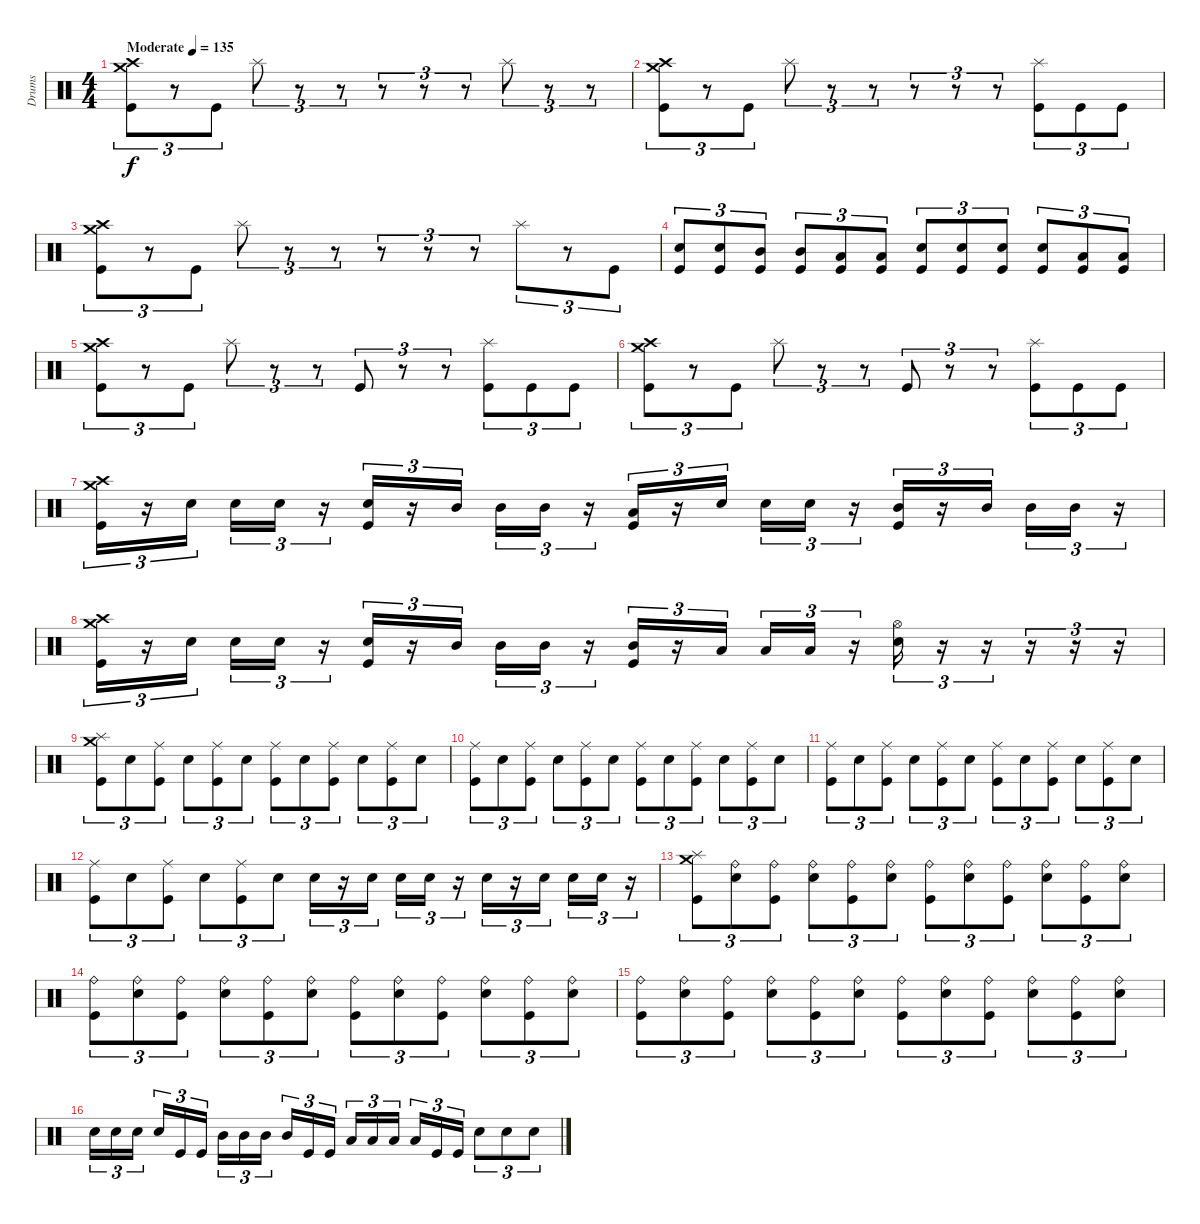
\track ("Drums" "Drums") {instrument percussion}
\staff {score}
\articulation defaults
\ts (4 4)
\tempo (135 "Moderate")
\clef neutral
\ks c
("Crash high (hit)" "Crash medium (hit)" "Kick (hit)").8{tu (3 2) dy f} r.8{tu (3 2)} "Kick (hit)".8{tu (3 2)} "Splash (hit)".8{tu (3 2)} r.8{tu (3 2)} r.8{tu (3 2)} r.8{tu (3 2)} r.8{tu (3 2)} r.8{tu (3 2)} "Splash (hit)".8{tu (3 2)} r.8{tu (3 2)} r.8{tu (3 2)} |
("Crash high (hit)" "Crash medium (hit)" "Kick (hit)").8{tu (3 2)} r.8{tu (3 2)} "Kick (hit)".8{tu (3 2)} "Splash (hit)".8{tu (3 2)} r.8{tu (3 2)} r.8{tu (3 2)} r.8{tu (3 2)} r.8{tu (3 2)} r.8{tu (3 2)} ("Splash (hit)" "Kick (hit)").8{tu (3 2)} "Kick (hit)".8{tu (3 2)} "Kick (hit)".8{tu (3 2)} |
("Crash high (hit)" "Crash medium (hit)" "Kick (hit)").8{tu (3 2)} r.8{tu (3 2)} "Kick (hit)".8{tu (3 2)} "Splash (hit)".8{tu (3 2)} r.8{tu (3 2)} r.8{tu (3 2)} r.8{tu (3 2)} r.8{tu (3 2)} r.8{tu (3 2)} "Splash (hit)".8{tu (3 2)} r.8{tu (3 2)} "Kick (hit)".8{tu (3 2)} |
("Electric Snare (hit)" "Kick (hit)").8{tu (3 2)} ("Electric Snare (hit)" "Kick (hit)").8{tu (3 2)} ("Mid Tom (hit)" "Kick (hit)").8{tu (3 2)} ("Mid Tom (hit)" "Kick (hit)").8{tu (3 2)} ("Low Tom (hit)" "Kick (hit)").8{tu (3 2)} ("Low Tom (hit)" "Kick (hit)").8{tu (3 2)} ("Electric Snare (hit)" "Kick (hit)").8{tu (3 2)} ("Electric Snare (hit)" "Kick (hit)").8{tu (3 2)} ("Electric Snare (hit)" "Kick (hit)").8{tu (3 2)} ("Electric Snare (hit)" "Kick (hit)").8{tu (3 2)} ("Low Tom (hit)" "Kick (hit)").8{tu (3 2)} ("Low Tom (hit)" "Kick (hit)").8{tu (3 2)} |
("Crash high (hit)" "Crash medium (hit)" "Kick (hit)").8{tu (3 2)} r.8{tu (3 2)} "Kick (hit)".8{tu (3 2)} "Splash (hit)".8{tu (3 2)} r.8{tu (3 2)} r.8{tu (3 2)} "Kick (hit)".8{tu (3 2)} r.8{tu (3 2)} r.8{tu (3 2)} ("Splash (hit)" "Kick (hit)").8{tu (3 2)} "Kick (hit)".8{tu (3 2)} "Kick (hit)".8{tu (3 2)} |
("Crash high (hit)" "Crash medium (hit)" "Kick (hit)").8{tu (3 2)} r.8{tu (3 2)} "Kick (hit)".8{tu (3 2)} "Splash (hit)".8{tu (3 2)} r.8{tu (3 2)} r.8{tu (3 2)} "Kick (hit)".8{tu (3 2)} r.8{tu (3 2)} r.8{tu (3 2)} ("Splash (hit)" "Kick (hit)").8{tu (3 2)} "Kick (hit)".8{tu (3 2)} "Kick (hit)".8{tu (3 2)} |
("Crash high (hit)" "Crash medium (hit)" "Kick (hit)").16{tu (3 2)} r.16{tu (3 2)} "Electric Snare (hit)".16{tu (3 2) beam splitsecondary} "Electric Snare (hit)".16{tu (3 2)} "Electric Snare (hit)".16{tu (3 2)} r.16{tu (3 2)} ("Electric Snare (hit)" "Kick (hit)").16{tu (3 2)} r.16{tu (3 2)} "Mid Tom (hit)".16{tu (3 2) beam splitsecondary} "Mid Tom (hit)".16{tu (3 2)} "Mid Tom (hit)".16{tu (3 2)} r.16{tu (3 2)} ("Low Tom (hit)" "Kick (hit)").16{tu (3 2)} r.16{tu (3 2)} "Electric Snare (hit)".16{tu (3 2) beam splitsecondary} "Electric Snare (hit)".16{tu (3 2)} "Electric Snare (hit)".16{tu (3 2)} r.16{tu (3 2)} ("Mid Tom (hit)" "Kick (hit)").16{tu (3 2)} r.16{tu (3 2)} "Mid Tom (hit)".16{tu (3 2) beam splitsecondary} "Mid Tom (hit)".16{tu (3 2)} "Mid Tom (hit)".16{tu (3 2)} r.16{tu (3 2)} |
("Crash high (hit)" "Crash medium (hit)" "Kick (hit)").16{tu (3 2)} r.16{tu (3 2)} "Electric Snare (hit)".16{tu (3 2) beam splitsecondary} "Electric Snare (hit)".16{tu (3 2)} "Electric Snare (hit)".16{tu (3 2)} r.16{tu (3 2)} ("Electric Snare (hit)" "Kick (hit)").16{tu (3 2)} r.16{tu (3 2)} "Mid Tom (hit)".16{tu (3 2) beam splitsecondary} "Mid Tom (hit)".16{tu (3 2)} "Mid Tom (hit)".16{tu (3 2)} r.16{tu (3 2)} ("Mid Tom (hit)" "Kick (hit)").16{tu (3 2)} r.16{tu (3 2)} "Low Tom (hit)".16{tu (3 2) beam splitsecondary} "Low Tom (hit)".16{tu (3 2)} "Low Tom (hit)".16{tu (3 2)} r.16{tu (3 2)} ("Hi-Hat (open)" "Electric Snare (hit)").16{tu (3 2)} r.16{tu (3 2)} r.16{tu (3 2) volume 0} r.16{tu (3 2)} r.16{tu (3 2)} r.16{tu (3 2)} |
("Splash (hit)" "Crash medium (hit)" "Kick (hit)").8{tu (3 2) volume 13} "Electric Snare (hit)".8{tu (3 2)} ("Ride (middle)" "Kick (hit)").8{tu (3 2)} "Electric Snare (hit)".8{tu (3 2)} ("Ride (middle)" "Kick (hit)").8{tu (3 2)} "Electric Snare (hit)".8{tu (3 2)} ("Ride (middle)" "Kick (hit)").8{tu (3 2) volume 13} "Electric Snare (hit)".8{tu (3 2)} ("Ride (middle)" "Kick (hit)").8{tu (3 2)} "Electric Snare (hit)".8{tu (3 2)} ("Ride (middle)" "Kick (hit)").8{tu (3 2)} "Electric Snare (hit)".8{tu (3 2)} |
("Ride (middle)" "Kick (hit)").8{tu (3 2) volume 13} "Electric Snare (hit)".8{tu (3 2)} ("Ride (middle)" "Kick (hit)").8{tu (3 2)} "Electric Snare (hit)".8{tu (3 2)} ("Ride (middle)" "Kick (hit)").8{tu (3 2)} "Electric Snare (hit)".8{tu (3 2)} ("Ride (middle)" "Kick (hit)").8{tu (3 2) volume 13} "Electric Snare (hit)".8{tu (3 2)} ("Ride (middle)" "Kick (hit)").8{tu (3 2)} "Electric Snare (hit)".8{tu (3 2)} ("Ride (middle)" "Kick (hit)").8{tu (3 2)} "Electric Snare (hit)".8{tu (3 2)} |
("Ride (middle)" "Kick (hit)").8{tu (3 2) volume 13} "Electric Snare (hit)".8{tu (3 2)} ("Ride (middle)" "Kick (hit)").8{tu (3 2)} "Electric Snare (hit)".8{tu (3 2)} ("Ride (middle)" "Kick (hit)").8{tu (3 2)} "Electric Snare (hit)".8{tu (3 2)} ("Ride (middle)" "Kick (hit)").8{tu (3 2) volume 13} "Electric Snare (hit)".8{tu (3 2)} ("Ride (middle)" "Kick (hit)").8{tu (3 2)} "Electric Snare (hit)".8{tu (3 2)} ("Ride (middle)" "Kick (hit)").8{tu (3 2)} "Electric Snare (hit)".8{tu (3 2)} |
("Ride (middle)" "Kick (hit)").8{tu (3 2) volume 13} "Electric Snare (hit)".8{tu (3 2)} ("Ride (middle)" "Kick (hit)").8{tu (3 2)} "Electric Snare (hit)".8{tu (3 2)} ("Ride (middle)" "Kick (hit)").8{tu (3 2)} "Electric Snare (hit)".8{tu (3 2)} "Electric Snare (hit)".16{tu (3 2)} r.16{tu (3 2)} "Electric Snare (hit)".16{tu (3 2) beam splitsecondary} "Electric Snare (hit)".16{tu (3 2)} "Electric Snare (hit)".16{tu (3 2)} r.16{tu (3 2)} "Electric Snare (hit)".16{tu (3 2)} r.16{tu (3 2)} "Electric Snare (hit)".16{tu (3 2) beam splitsecondary} "Electric Snare (hit)".16{tu (3 2)} "Electric Snare (hit)".16{tu (3 2)} r.16{tu (3 2)} |
("Splash (hit)" "Crash medium (hit)" "Kick (hit)").8{tu (3 2) volume 13} ("Ride (bell)" "Electric Snare (hit)").8{tu (3 2)} ("Ride (bell)" "Kick (hit)").8{tu (3 2)} ("Ride (bell)" "Electric Snare (hit)").8{tu (3 2)} ("Ride (bell)" "Kick (hit)").8{tu (3 2)} ("Ride (bell)" "Electric Snare (hit)").8{tu (3 2)} ("Ride (bell)" "Kick (hit)").8{tu (3 2) volume 13} ("Ride (bell)" "Electric Snare (hit)").8{tu (3 2)} ("Ride (bell)" "Kick (hit)").8{tu (3 2)} ("Ride (bell)" "Electric Snare (hit)").8{tu (3 2)} ("Ride (bell)" "Kick (hit)").8{tu (3 2)} ("Ride (bell)" "Electric Snare (hit)").8{tu (3 2)} |
("Ride (bell)" "Kick (hit)").8{tu (3 2) volume 13} ("Ride (bell)" "Electric Snare (hit)").8{tu (3 2)} ("Ride (bell)" "Kick (hit)").8{tu (3 2)} ("Ride (bell)" "Electric Snare (hit)").8{tu (3 2)} ("Ride (bell)" "Kick (hit)").8{tu (3 2)} ("Ride (bell)" "Electric Snare (hit)").8{tu (3 2)} ("Ride (bell)" "Kick (hit)").8{tu (3 2) volume 13} ("Ride (bell)" "Electric Snare (hit)").8{tu (3 2)} ("Ride (bell)" "Kick (hit)").8{tu (3 2)} ("Ride (bell)" "Electric Snare (hit)").8{tu (3 2)} ("Ride (bell)" "Kick (hit)").8{tu (3 2)} ("Ride (bell)" "Electric Snare (hit)").8{tu (3 2)} |
("Ride (bell)" "Kick (hit)").8{tu (3 2) volume 13} ("Ride (bell)" "Electric Snare (hit)").8{tu (3 2)} ("Ride (bell)" "Kick (hit)").8{tu (3 2)} ("Ride (bell)" "Electric Snare (hit)").8{tu (3 2)} ("Ride (bell)" "Kick (hit)").8{tu (3 2)} ("Ride (bell)" "Electric Snare (hit)").8{tu (3 2)} ("Ride (bell)" "Kick (hit)").8{tu (3 2) volume 13} ("Ride (bell)" "Electric Snare (hit)").8{tu (3 2)} ("Ride (bell)" "Kick (hit)").8{tu (3 2)} ("Ride (bell)" "Electric Snare (hit)").8{tu (3 2)} ("Ride (bell)" "Kick (hit)").8{tu (3 2)} ("Ride (bell)" "Electric Snare (hit)").8{tu (3 2)} |
"Electric Snare (hit)".16{tu (3 2)} "Electric Snare (hit)".16{tu (3 2)} "Electric Snare (hit)".16{tu (3 2) beam splitsecondary} "Electric Snare (hit)".16{tu (3 2)} "Kick (hit)".16{tu (3 2)} "Kick (hit)".16{tu (3 2)} "Mid Tom (hit)".16{tu (3 2)} "Mid Tom (hit)".16{tu (3 2)} "Mid Tom (hit)".16{tu (3 2) beam splitsecondary} "Mid Tom (hit)".16{tu (3 2)} "Kick (hit)".16{tu (3 2)} "Kick (hit)".16{tu (3 2)} "Low Tom (hit)".16{tu (3 2)} "Low Tom (hit)".16{tu (3 2)} "Low Tom (hit)".16{tu (3 2) beam splitsecondary} "Low Tom (hit)".16{tu (3 2)} "Kick (hit)".16{tu (3 2)} "Kick (hit)".16{tu (3 2)} "Electric Snare (hit)".8{tu (3 2)} "Electric Snare (hit)".8{tu (3 2)} "Electric Snare (hit)".8{tu (3 2)}
